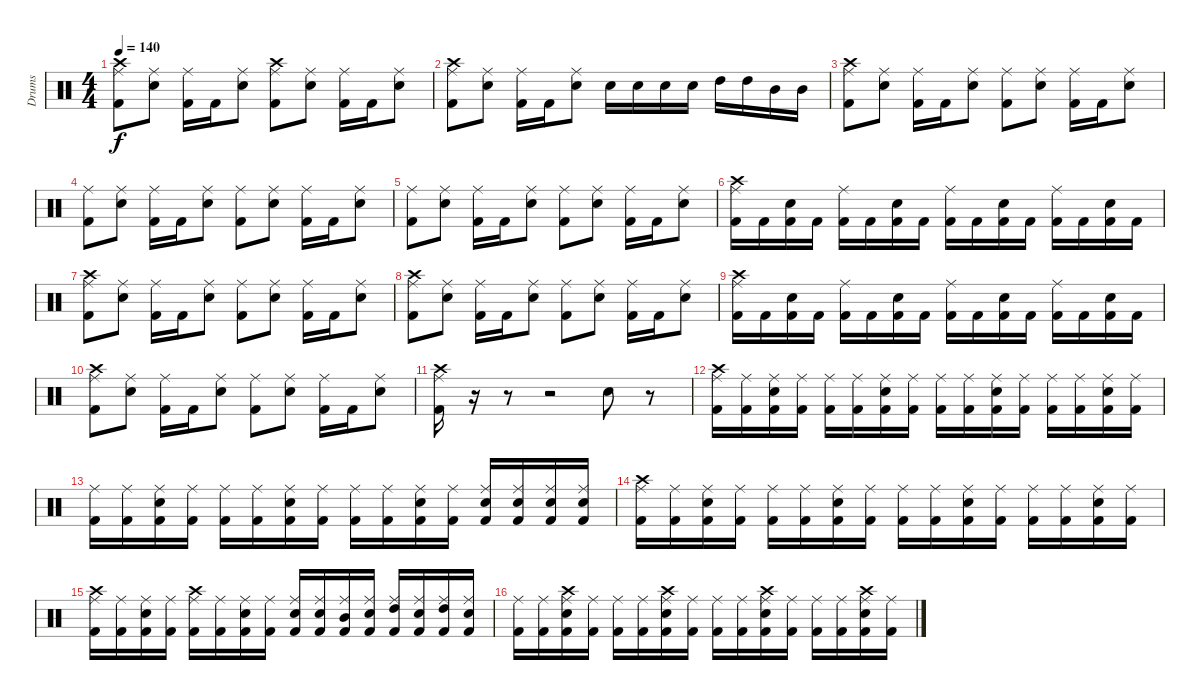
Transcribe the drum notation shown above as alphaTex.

\track ("Drums" "Drums") {instrument percussion}
\staff {score}
\articulation defaults
\ts (4 4)
\tempo 140
\clef neutral
\ks c
("Kick (hit) 2" "Crash high (hit)" "Ride (middle)").8{dy f} ("Snare (hit) 2" "Ride (middle)").8 ("Kick (hit) 2" "Ride (middle)").16 "Kick (hit) 2".16 ("Snare (hit) 2" "Ride (middle)").8 ("Kick (hit) 2" "Crash high (hit)" "Ride (middle)").8 ("Snare (hit) 2" "Ride (middle)").8 ("Kick (hit) 2" "Ride (middle)").16 "Kick (hit) 2".16 ("Snare (hit) 2" "Ride (middle)").8 |
("Kick (hit) 2" "Crash high (hit)" "Ride (middle)").8 ("Snare (hit) 2" "Ride (middle)").8 ("Kick (hit) 2" "Ride (middle)").16 "Kick (hit) 2".16 ("Snare (hit) 2" "Ride (middle)").8 "Snare (hit) 2".16 "Snare (hit) 2".16 "Snare (hit) 2".16 "Snare (hit) 2".16 "High Tom (hit)".16 "High Tom (hit)".16 "Mid Tom (hit)".16 "Mid Tom (hit)".16 |
("Kick (hit) 2" "Crash high (hit)" "Ride (middle)").8 ("Snare (hit) 2" "Ride (middle)").8 ("Kick (hit) 2" "Ride (middle)").16 "Kick (hit) 2".16 ("Snare (hit) 2" "Ride (middle)").8 ("Kick (hit) 2" "Ride (middle)").8 ("Snare (hit) 2" "Ride (middle)").8 ("Kick (hit) 2" "Ride (middle)").16 "Kick (hit) 2".16 ("Snare (hit) 2" "Ride (middle)").8 |
("Kick (hit) 2" "Ride (middle)").8 ("Snare (hit) 2" "Ride (middle)").8 ("Kick (hit) 2" "Ride (middle)").16 "Kick (hit) 2".16 ("Snare (hit) 2" "Ride (middle)").8 ("Kick (hit) 2" "Ride (middle)").8 ("Snare (hit) 2" "Ride (middle)").8 ("Kick (hit) 2" "Ride (middle)").16 "Kick (hit) 2".16 ("Snare (hit) 2" "Ride (middle)").8 |
("Kick (hit) 2" "Ride (middle)").8 ("Snare (hit) 2" "Ride (middle)").8 ("Kick (hit) 2" "Ride (middle)").16 "Kick (hit) 2".16 ("Snare (hit) 2" "Ride (middle)").8 ("Kick (hit) 2" "Ride (middle)").8 ("Snare (hit) 2" "Ride (middle)").8 ("Kick (hit) 2" "Ride (middle)").16 "Kick (hit) 2".16 ("Snare (hit) 2" "Ride (middle)").8 |
("Kick (hit) 2" "Crash high (hit)" "Ride (middle)").16 "Kick (hit) 2".16 ("Kick (hit) 2" "Snare (hit) 2").16 "Kick (hit) 2".16 ("Kick (hit) 2" "Ride (middle)").16 "Kick (hit) 2".16 ("Kick (hit) 2" "Snare (hit) 2").16 "Kick (hit) 2".16 ("Kick (hit) 2" "Ride (middle)").16 "Kick (hit) 2".16 ("Kick (hit) 2" "Snare (hit) 2").16 "Kick (hit) 2".16 ("Kick (hit) 2" "Ride (middle)").16 "Kick (hit) 2".16 ("Kick (hit) 2" "Snare (hit) 2").16 "Kick (hit) 2".16 |
("Kick (hit) 2" "Crash high (hit)" "Ride (middle)").8 ("Snare (hit) 2" "Ride (middle)").8 ("Kick (hit) 2" "Ride (middle)").16 "Kick (hit) 2".16 ("Snare (hit) 2" "Ride (middle)").8 ("Kick (hit) 2" "Ride (middle)").8 ("Snare (hit) 2" "Ride (middle)").8 ("Kick (hit) 2" "Ride (middle)").16 "Kick (hit) 2".16 ("Snare (hit) 2" "Ride (middle)").8 |
("Kick (hit) 2" "Crash high (hit)" "Ride (middle)").8 ("Snare (hit) 2" "Ride (middle)").8 ("Kick (hit) 2" "Ride (middle)").16 "Kick (hit) 2".16 ("Snare (hit) 2" "Ride (middle)").8 ("Kick (hit) 2" "Ride (middle)").8 ("Snare (hit) 2" "Ride (middle)").8 ("Kick (hit) 2" "Ride (middle)").16 "Kick (hit) 2".16 ("Snare (hit) 2" "Ride (middle)").8 |
("Kick (hit) 2" "Crash high (hit)" "Ride (middle)").16 "Kick (hit) 2".16 ("Kick (hit) 2" "Snare (hit) 2").16 "Kick (hit) 2".16 ("Kick (hit) 2" "Ride (middle)").16 "Kick (hit) 2".16 ("Kick (hit) 2" "Snare (hit) 2").16 "Kick (hit) 2".16 ("Kick (hit) 2" "Ride (middle)").16 "Kick (hit) 2".16 ("Kick (hit) 2" "Snare (hit) 2").16 "Kick (hit) 2".16 ("Kick (hit) 2" "Ride (middle)").16 "Kick (hit) 2".16 ("Kick (hit) 2" "Snare (hit) 2").16 "Kick (hit) 2".16 |
("Kick (hit) 2" "Crash high (hit)" "Ride (middle)").8 ("Snare (hit) 2" "Ride (middle)").8 ("Kick (hit) 2" "Ride (middle)").16 "Kick (hit) 2".16 ("Snare (hit) 2" "Ride (middle)").8 ("Kick (hit) 2" "Ride (middle)").8 ("Snare (hit) 2" "Ride (middle)").8 ("Kick (hit) 2" "Ride (middle)").16 "Kick (hit) 2".16 ("Snare (hit) 2" "Ride (middle)").8 |
("Kick (hit) 2" "Crash high (hit)" "Ride (middle)").16 r.16 r.8 r.2 "Snare (hit) 2".8 r.8 |
("Kick (hit) 2" "Crash high (hit)" "Ride (middle)").16 ("Kick (hit) 2" "Ride (middle)").16 ("Kick (hit) 2" "Snare (hit) 2" "Ride (middle)").16 ("Kick (hit) 2" "Ride (middle)").16 ("Kick (hit) 2" "Ride (middle)").16 ("Kick (hit) 2" "Ride (middle)").16 ("Kick (hit) 2" "Snare (hit) 2" "Ride (middle)").16 ("Kick (hit) 2" "Ride (middle)").16 ("Kick (hit) 2" "Ride (middle)").16 ("Kick (hit) 2" "Ride (middle)").16 ("Kick (hit) 2" "Snare (hit) 2" "Ride (middle)").16 ("Kick (hit) 2" "Ride (middle)").16 ("Kick (hit) 2" "Ride (middle)").16 ("Kick (hit) 2" "Ride (middle)").16 ("Kick (hit) 2" "Snare (hit) 2" "Ride (middle)").16 ("Kick (hit) 2" "Ride (middle)").16 |
("Kick (hit) 2" "Ride (middle)").16 ("Kick (hit) 2" "Ride (middle)").16 ("Kick (hit) 2" "Snare (hit) 2" "Ride (middle)").16 ("Kick (hit) 2" "Ride (middle)").16 ("Kick (hit) 2" "Ride (middle)").16 ("Kick (hit) 2" "Ride (middle)").16 ("Kick (hit) 2" "Snare (hit) 2" "Ride (middle)").16 ("Kick (hit) 2" "Ride (middle)").16 ("Kick (hit) 2" "Ride (middle)").16 ("Kick (hit) 2" "Ride (middle)").16 ("Kick (hit) 2" "Snare (hit) 2" "Ride (middle)").16 ("Kick (hit) 2" "Ride (middle)").16 ("Kick (hit) 2" "Snare (hit) 2" "Ride (middle)").16 ("Kick (hit) 2" "Snare (hit) 2" "Ride (middle)").16 ("Kick (hit) 2" "Snare (hit) 2" "Ride (middle)").16 ("Kick (hit) 2" "Snare (hit) 2" "Ride (middle)").16 |
("Kick (hit) 2" "Crash high (hit)" "Ride (middle)").16 ("Kick (hit) 2" "Ride (middle)").16 ("Kick (hit) 2" "Snare (hit) 2" "Ride (middle)").16 ("Kick (hit) 2" "Ride (middle)").16 ("Kick (hit) 2" "Ride (middle)").16 ("Kick (hit) 2" "Ride (middle)").16 ("Kick (hit) 2" "Snare (hit) 2" "Ride (middle)").16 ("Kick (hit) 2" "Ride (middle)").16 ("Kick (hit) 2" "Ride (middle)").16 ("Kick (hit) 2" "Ride (middle)").16 ("Kick (hit) 2" "Snare (hit) 2" "Ride (middle)").16 ("Kick (hit) 2" "Ride (middle)").16 ("Kick (hit) 2" "Ride (middle)").16 ("Kick (hit) 2" "Ride (middle)").16 ("Kick (hit) 2" "Snare (hit) 2" "Ride (middle)").16 ("Kick (hit) 2" "Ride (middle)").16 |
("Kick (hit) 2" "Crash high (hit)" "Ride (middle)").16 ("Kick (hit) 2" "Ride (middle)").16 ("Kick (hit) 2" "Snare (hit) 2" "Ride (middle)").16 ("Kick (hit) 2" "Ride (middle)").16 ("Kick (hit) 2" "Crash high (hit)" "Ride (middle)").16 ("Kick (hit) 2" "Ride (middle)").16 ("Kick (hit) 2" "Snare (hit) 2" "Ride (middle)").16 ("Kick (hit) 2" "Ride (middle)").16 ("Kick (hit) 2" "Snare (hit) 2" "Ride (middle)").16 ("Kick (hit) 2" "Snare (hit) 2" "Ride (middle)").16 ("Kick (hit) 2" "Mid Tom (hit)" "Ride (middle)").16 ("Kick (hit) 2" "Snare (hit) 2" "Ride (middle)").16 ("Kick (hit) 2" "High Tom (hit)" "Ride (middle)").16 ("Kick (hit) 2" "Snare (hit) 2" "Ride (middle)").16 ("Kick (hit) 2" "High Tom (hit)" "Ride (middle)").16 ("Kick (hit) 2" "Snare (hit) 2" "Ride (middle)").16 |
("Kick (hit) 2" "Ride (middle)").16 ("Kick (hit) 2" "Ride (middle)").16 ("Kick (hit) 2" "Snare (hit) 2" "Crash high (hit)" "Ride (middle)").16 ("Kick (hit) 2" "Ride (middle)").16 ("Kick (hit) 2" "Ride (middle)").16 ("Kick (hit) 2" "Ride (middle)").16 ("Kick (hit) 2" "Snare (hit) 2" "Crash high (hit)" "Ride (middle)").16 ("Kick (hit) 2" "Ride (middle)").16 ("Kick (hit) 2" "Ride (middle)").16 ("Kick (hit) 2" "Ride (middle)").16 ("Kick (hit) 2" "Snare (hit) 2" "Crash high (hit)" "Ride (middle)").16 ("Kick (hit) 2" "Ride (middle)").16 ("Kick (hit) 2" "Ride (middle)").16 ("Kick (hit) 2" "Ride (middle)").16 ("Kick (hit) 2" "Snare (hit) 2" "Crash high (hit)" "Ride (middle)").16 ("Kick (hit) 2" "Ride (middle)").16
